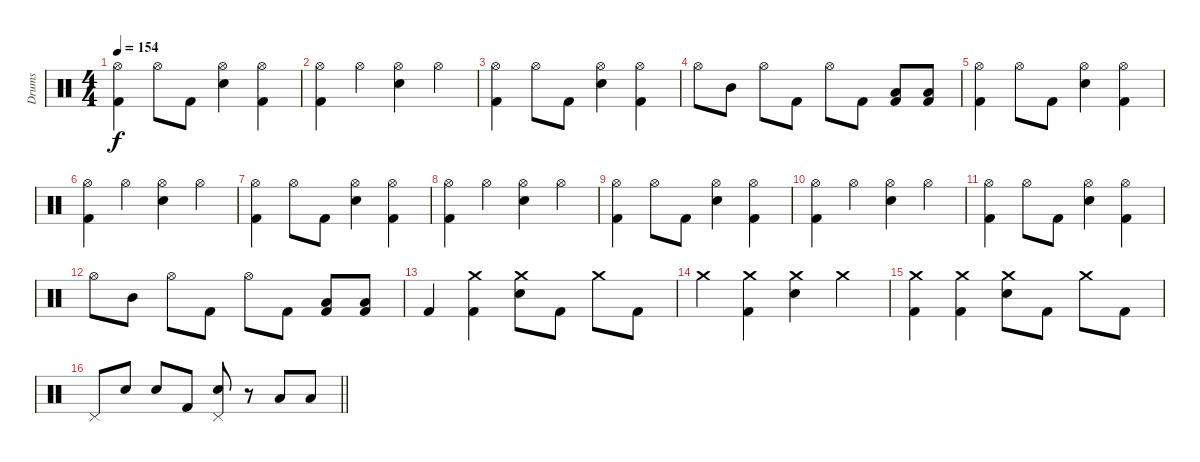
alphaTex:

\track ("Drums" "Drums") {instrument percussion}
\staff {score}
\articulation defaults
\ts (4 4)
\tempo 154
\clef neutral
\ks c
("Hi-Hat (open)" "Kick (hit) 2").4{dy f} "Hi-Hat (open)".8 "Kick (hit) 2".8 ("Hi-Hat (open)" "Snare (hit) 2").4 ("Hi-Hat (open)" "Kick (hit) 2").4 |
("Hi-Hat (open)" "Kick (hit) 2").4 "Hi-Hat (open)".4 ("Hi-Hat (open)" "Snare (hit) 2").4 "Hi-Hat (open)".4 |
("Hi-Hat (open)" "Kick (hit) 2").4 "Hi-Hat (open)".8 "Kick (hit) 2".8 ("Hi-Hat (open)" "Snare (hit) 2").4 ("Hi-Hat (open)" "Kick (hit) 2").4 |
"Hi-Hat (open)".8 "Mid Tom (hit)".8 "Hi-Hat (open)".8 "Kick (hit) 2".8 "Hi-Hat (open)".8 "Kick (hit) 2".8 ("Low Floor Tom (hit)" "Kick (hit) 2").8 ("Low Floor Tom (hit)" "Kick (hit) 2").8 |
("Hi-Hat (open)" "Kick (hit) 2").4 "Hi-Hat (open)".8 "Kick (hit) 2".8 ("Hi-Hat (open)" "Snare (hit) 2").4 ("Hi-Hat (open)" "Kick (hit) 2").4 |
("Hi-Hat (open)" "Kick (hit) 2").4 "Hi-Hat (open)".4 ("Hi-Hat (open)" "Snare (hit) 2").4 "Hi-Hat (open)".4 |
("Hi-Hat (open)" "Kick (hit) 2").4 "Hi-Hat (open)".8 "Kick (hit) 2".8 ("Hi-Hat (open)" "Snare (hit) 2").4 ("Hi-Hat (open)" "Kick (hit) 2").4 |
("Hi-Hat (open)" "Kick (hit) 2").4 "Hi-Hat (open)".4 ("Hi-Hat (open)" "Snare (hit) 2").4 "Hi-Hat (open)".4 |
("Hi-Hat (open)" "Kick (hit) 2").4 "Hi-Hat (open)".8 "Kick (hit) 2".8 ("Hi-Hat (open)" "Snare (hit) 2").4 ("Hi-Hat (open)" "Kick (hit) 2").4 |
("Hi-Hat (open)" "Kick (hit) 2").4 "Hi-Hat (open)".4 ("Hi-Hat (open)" "Snare (hit) 2").4 "Hi-Hat (open)".4 |
("Hi-Hat (open)" "Kick (hit) 2").4 "Hi-Hat (open)".8 "Kick (hit) 2".8 ("Hi-Hat (open)" "Snare (hit) 2").4 ("Hi-Hat (open)" "Kick (hit) 2").4 |
"Hi-Hat (open)".8 "Mid Tom (hit)".8 "Hi-Hat (open)".8 "Kick (hit) 2".8 "Hi-Hat (open)".8 "Kick (hit) 2".8 ("Low Floor Tom (hit)" "Kick (hit) 2").8 ("Low Floor Tom (hit)" "Kick (hit) 2").8 |
"Kick (hit) 2".4 ("Crash medium (hit)" "Kick (hit) 2").4 ("Crash medium (hit)" "Snare (hit) 2").8 "Kick (hit) 2".8 "Crash medium (hit)".8 "Kick (hit) 2".8 |
"Crash medium (hit)".4 ("Crash medium (hit)" "Kick (hit) 2").4 ("Crash medium (hit)" "Snare (hit) 2").4 "Crash medium (hit)".4 |
("Crash medium (hit)" "Kick (hit) 2").4 ("Crash medium (hit)" "Kick (hit) 2").4 ("Crash medium (hit)" "Snare (hit) 2").8 "Kick (hit) 2".8 "Crash medium (hit)".8 "Kick (hit) 2".8 |
\barLineRight lightlight "Pedal Hi-Hat (hit)".8 "Snare (hit) 2".8 "Snare (hit) 2".8 "Kick (hit) 2".8
("Pedal Hi-Hat (hit)" "Snare (hit) 2").8 r.8 "Low Floor Tom (hit)".8 "Low Floor Tom (hit)".8
